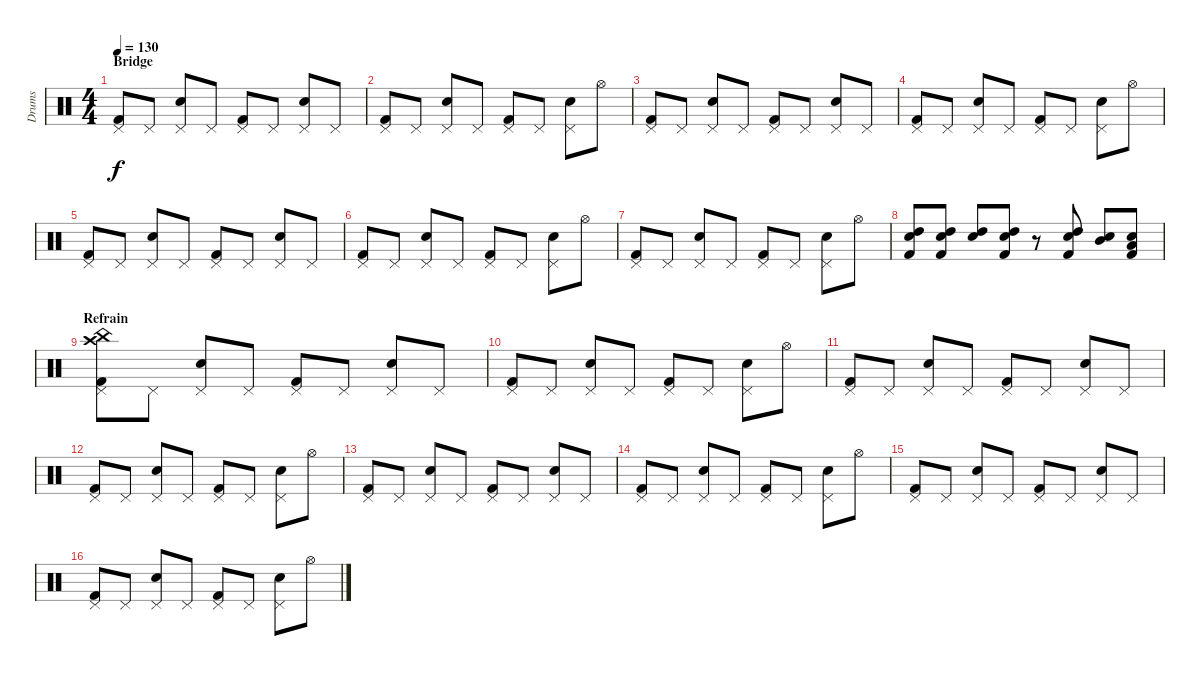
\track ("Drums" "Drums") {instrument percussion}
\staff {score}
\articulation defaults
\ts (4 4)
\section ("" "Bridge")
\tempo 130
\clef neutral
\ks c
("Pedal Hi-Hat (hit)" "Kick (hit) 2").8{dy f} "Pedal Hi-Hat (hit)".8 ("Pedal Hi-Hat (hit)" "Snare (hit) 2").8 "Pedal Hi-Hat (hit)".8 ("Pedal Hi-Hat (hit)" "Kick (hit) 2").8 "Pedal Hi-Hat (hit)".8 ("Pedal Hi-Hat (hit)" "Snare (hit) 2").8 "Pedal Hi-Hat (hit)".8 |
("Pedal Hi-Hat (hit)" "Kick (hit) 2").8 "Pedal Hi-Hat (hit)".8 ("Pedal Hi-Hat (hit)" "Snare (hit) 2").8 "Pedal Hi-Hat (hit)".8 ("Pedal Hi-Hat (hit)" "Kick (hit) 2").8 "Pedal Hi-Hat (hit)".8 ("Pedal Hi-Hat (hit)" "Snare (hit) 2").8 "Hi-Hat (open)".8 |
("Pedal Hi-Hat (hit)" "Kick (hit) 2").8 "Pedal Hi-Hat (hit)".8 ("Pedal Hi-Hat (hit)" "Snare (hit) 2").8 "Pedal Hi-Hat (hit)".8 ("Pedal Hi-Hat (hit)" "Kick (hit) 2").8 "Pedal Hi-Hat (hit)".8 ("Pedal Hi-Hat (hit)" "Snare (hit) 2").8 "Pedal Hi-Hat (hit)".8 |
("Pedal Hi-Hat (hit)" "Kick (hit) 2").8 "Pedal Hi-Hat (hit)".8 ("Pedal Hi-Hat (hit)" "Snare (hit) 2").8 "Pedal Hi-Hat (hit)".8 ("Pedal Hi-Hat (hit)" "Kick (hit) 2").8 "Pedal Hi-Hat (hit)".8 ("Pedal Hi-Hat (hit)" "Snare (hit) 2").8 "Hi-Hat (open)".8 |
("Pedal Hi-Hat (hit)" "Kick (hit) 2").8 "Pedal Hi-Hat (hit)".8 ("Pedal Hi-Hat (hit)" "Snare (hit) 2").8 "Pedal Hi-Hat (hit)".8 ("Pedal Hi-Hat (hit)" "Kick (hit) 2").8 "Pedal Hi-Hat (hit)".8 ("Pedal Hi-Hat (hit)" "Snare (hit) 2").8 "Pedal Hi-Hat (hit)".8 |
("Pedal Hi-Hat (hit)" "Kick (hit) 2").8 "Pedal Hi-Hat (hit)".8 ("Pedal Hi-Hat (hit)" "Snare (hit) 2").8 "Pedal Hi-Hat (hit)".8 ("Pedal Hi-Hat (hit)" "Kick (hit) 2").8 "Pedal Hi-Hat (hit)".8 ("Pedal Hi-Hat (hit)" "Snare (hit) 2").8 "Hi-Hat (open)".8 |
("Pedal Hi-Hat (hit)" "Kick (hit) 2").8 "Pedal Hi-Hat (hit)".8 ("Pedal Hi-Hat (hit)" "Snare (hit) 2").8 "Pedal Hi-Hat (hit)".8 ("Pedal Hi-Hat (hit)" "Kick (hit) 2").8 "Pedal Hi-Hat (hit)".8 ("Pedal Hi-Hat (hit)" "Snare (hit) 2").8 "Hi-Hat (open)".8 |
("Snare (hit) 2" "High Tom (hit)" "Kick (hit) 2").8 ("Snare (hit) 2" "High Tom (hit)" "Kick (hit) 2").8 ("Snare (hit) 2" "High Tom (hit)").8 ("Snare (hit) 2" "High Tom (hit)" "Kick (hit) 2").8 r.8 ("Snare (hit) 2" "High Tom (hit)" "Kick (hit) 2").8 ("Snare (hit) 2" "Mid Tom (hit)").8 ("Snare (hit) 2" "Low Tom (hit)" "Kick (hit) 2").8 |
\section ("" "Refrain")
("China (hit)" "Pedal Hi-Hat (hit)" "Crash high (hit)" "Kick (hit) 2").8 "Pedal Hi-Hat (hit)".8 ("Pedal Hi-Hat (hit)" "Snare (hit) 2").8 "Pedal Hi-Hat (hit)".8 ("Pedal Hi-Hat (hit)" "Kick (hit) 2").8 "Pedal Hi-Hat (hit)".8 ("Pedal Hi-Hat (hit)" "Snare (hit) 2").8 "Pedal Hi-Hat (hit)".8 |
("Pedal Hi-Hat (hit)" "Kick (hit) 2").8 "Pedal Hi-Hat (hit)".8 ("Pedal Hi-Hat (hit)" "Snare (hit) 2").8 "Pedal Hi-Hat (hit)".8 ("Pedal Hi-Hat (hit)" "Kick (hit) 2").8 "Pedal Hi-Hat (hit)".8 ("Pedal Hi-Hat (hit)" "Snare (hit) 2").8 "Hi-Hat (open)".8 |
("Pedal Hi-Hat (hit)" "Kick (hit) 2").8 "Pedal Hi-Hat (hit)".8 ("Pedal Hi-Hat (hit)" "Snare (hit) 2").8 "Pedal Hi-Hat (hit)".8 ("Pedal Hi-Hat (hit)" "Kick (hit) 2").8 "Pedal Hi-Hat (hit)".8 ("Pedal Hi-Hat (hit)" "Snare (hit) 2").8 "Pedal Hi-Hat (hit)".8 |
("Pedal Hi-Hat (hit)" "Kick (hit) 2").8 "Pedal Hi-Hat (hit)".8 ("Pedal Hi-Hat (hit)" "Snare (hit) 2").8 "Pedal Hi-Hat (hit)".8 ("Pedal Hi-Hat (hit)" "Kick (hit) 2").8 "Pedal Hi-Hat (hit)".8 ("Pedal Hi-Hat (hit)" "Snare (hit) 2").8 "Hi-Hat (open)".8 |
("Pedal Hi-Hat (hit)" "Kick (hit) 2").8 "Pedal Hi-Hat (hit)".8 ("Pedal Hi-Hat (hit)" "Snare (hit) 2").8 "Pedal Hi-Hat (hit)".8 ("Pedal Hi-Hat (hit)" "Kick (hit) 2").8 "Pedal Hi-Hat (hit)".8 ("Pedal Hi-Hat (hit)" "Snare (hit) 2").8 "Pedal Hi-Hat (hit)".8 |
("Pedal Hi-Hat (hit)" "Kick (hit) 2").8 "Pedal Hi-Hat (hit)".8 ("Pedal Hi-Hat (hit)" "Snare (hit) 2").8 "Pedal Hi-Hat (hit)".8 ("Pedal Hi-Hat (hit)" "Kick (hit) 2").8 "Pedal Hi-Hat (hit)".8 ("Pedal Hi-Hat (hit)" "Snare (hit) 2").8 "Hi-Hat (open)".8 |
("Pedal Hi-Hat (hit)" "Kick (hit) 2").8 "Pedal Hi-Hat (hit)".8 ("Pedal Hi-Hat (hit)" "Snare (hit) 2").8 "Pedal Hi-Hat (hit)".8 ("Pedal Hi-Hat (hit)" "Kick (hit) 2").8 "Pedal Hi-Hat (hit)".8 ("Pedal Hi-Hat (hit)" "Snare (hit) 2").8 "Pedal Hi-Hat (hit)".8 |
("Pedal Hi-Hat (hit)" "Kick (hit) 2").8 "Pedal Hi-Hat (hit)".8 ("Pedal Hi-Hat (hit)" "Snare (hit) 2").8 "Pedal Hi-Hat (hit)".8 ("Pedal Hi-Hat (hit)" "Kick (hit) 2").8 "Pedal Hi-Hat (hit)".8 ("Pedal Hi-Hat (hit)" "Snare (hit) 2").8 "Hi-Hat (open)".8
